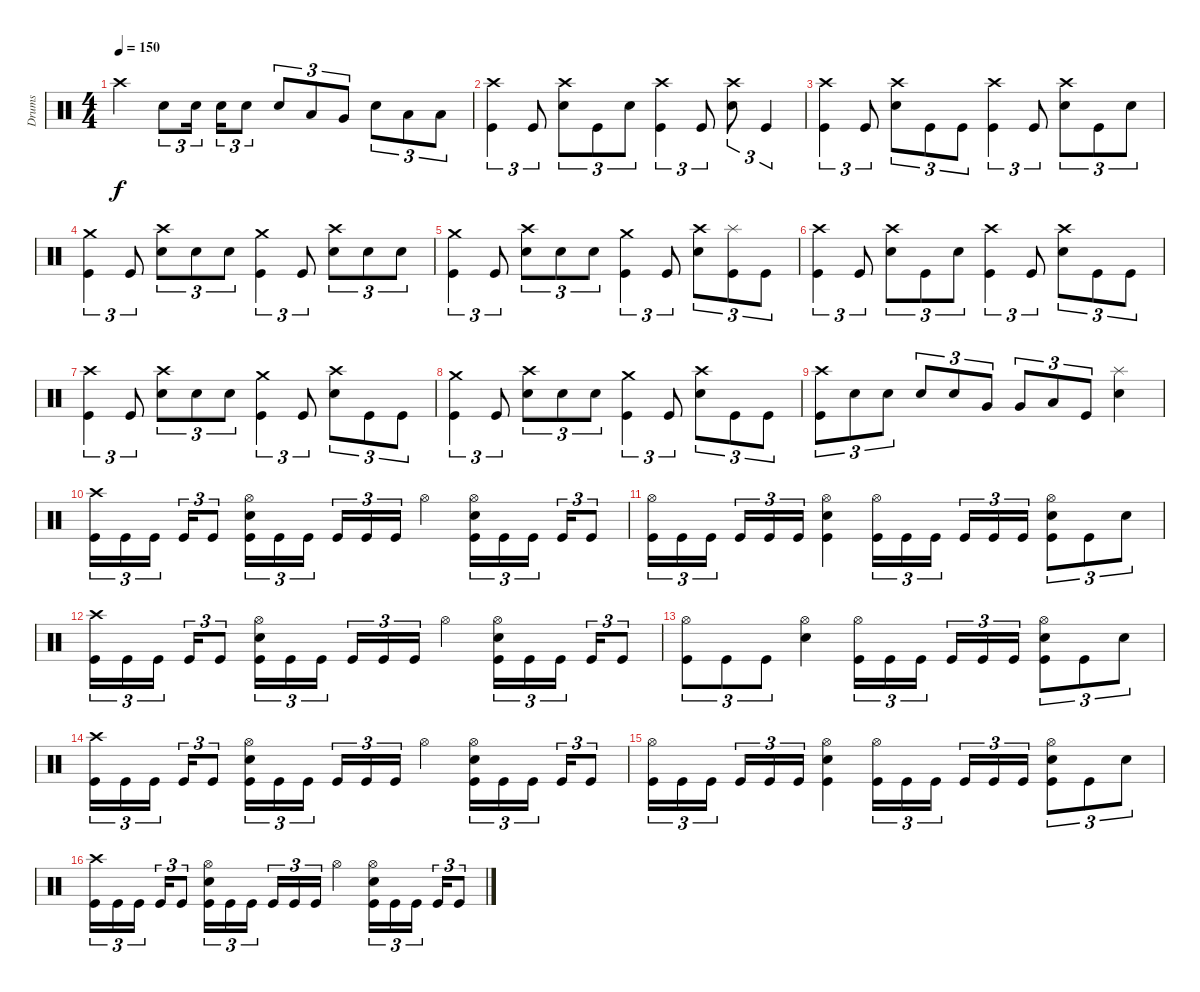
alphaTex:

\track ("Drums" "Drums") {instrument percussion}
\staff {score}
\articulation defaults
\ts (4 4)
\tempo 150
\clef neutral
\ks c "Crash high (hit)".4{dy f} "Electric Snare (hit)".8{tu (3 2)} "Electric Snare (hit)".16{tu (3 2) beam splitsecondary} "Electric Snare (hit)".16{tu (3 2)} "Electric Snare (hit)".8{tu (3 2)} "Electric Snare (hit)".8{tu (3 2)} "Low Tom (hit)".8{tu (3 2)} "Very Low Tom (hit)".8{tu (3 2)} "Electric Snare (hit)".8{tu (3 2)} "Low Floor Tom (hit)".8{tu (3 2)} "Low Floor Tom (hit)".8{tu (3 2)}
|
("Crash high (hit)" "Kick (hit)").4{tu (3 2)} "Kick (hit)".8{tu (3 2)} ("Crash high (hit)" "Electric Snare (hit)").8{tu (3 2)} "Kick (hit)".8{tu (3 2)} "Electric Snare (hit)".8{tu (3 2)} ("Crash high (hit)" "Kick (hit)").4{tu (3 2)} "Kick (hit)".8{tu (3 2)} ("Crash high (hit)" "Electric Snare (hit)").8{tu (3 2)} "Kick (hit)".4{tu (3 2)} |
("Crash high (hit)" "Kick (hit)").4{tu (3 2)} "Kick (hit)".8{tu (3 2)} ("Crash high (hit)" "Electric Snare (hit)").8{tu (3 2)} "Kick (hit)".8{tu (3 2)} "Kick (hit)".8{tu (3 2)} ("Crash high (hit)" "Kick (hit)").4{tu (3 2)} "Kick (hit)".8{tu (3 2)} ("Crash high (hit)" "Electric Snare (hit)").8{tu (3 2)} "Kick (hit)".8{tu (3 2)} "Electric Snare (hit)".8{tu (3 2)} |
("Crash medium (hit)" "Kick (hit)").4{tu (3 2)} "Kick (hit)".8{tu (3 2)} ("Crash high (hit)" "Electric Snare (hit)").8{tu (3 2)} "Electric Snare (hit)".8{tu (3 2)} "Electric Snare (hit)".8{tu (3 2)} ("Crash medium (hit)" "Kick (hit)").4{tu (3 2)} "Kick (hit)".8{tu (3 2)} ("Crash high (hit)" "Electric Snare (hit)").8{tu (3 2)} "Electric Snare (hit)".8{tu (3 2)} "Electric Snare (hit)".8{tu (3 2)} |
("Crash medium (hit)" "Kick (hit)").4{tu (3 2)} "Kick (hit)".8{tu (3 2)} ("Crash high (hit)" "Electric Snare (hit)").8{tu (3 2)} "Electric Snare (hit)".8{tu (3 2)} "Electric Snare (hit)".8{tu (3 2)} ("Crash medium (hit)" "Kick (hit)").4{tu (3 2)} "Kick (hit)".8{tu (3 2)} ("Crash high (hit)" "Electric Snare (hit)").8{tu (3 2)} ("Splash (hit)" "Kick (hit)").8{tu (3 2)} "Kick (hit)".8{tu (3 2)} |
("Crash high (hit)" "Kick (hit)").4{tu (3 2)} "Kick (hit)".8{tu (3 2)} ("Crash high (hit)" "Electric Snare (hit)").8{tu (3 2)} "Kick (hit)".8{tu (3 2)} "Electric Snare (hit)".8{tu (3 2)} ("Crash high (hit)" "Kick (hit)").4{tu (3 2)} "Kick (hit)".8{tu (3 2)} ("Crash high (hit)" "Electric Snare (hit)").8{tu (3 2)} "Kick (hit)".8{tu (3 2)} "Kick (hit)".8{tu (3 2)} |
("Crash high (hit)" "Kick (hit)").4{tu (3 2)} "Kick (hit)".8{tu (3 2)} ("Crash high (hit)" "Electric Snare (hit)").8{tu (3 2)} "Electric Snare (hit)".8{tu (3 2)} "Electric Snare (hit)".8{tu (3 2)} ("Crash medium (hit)" "Kick (hit)").4{tu (3 2)} "Kick (hit)".8{tu (3 2)} ("Crash high (hit)" "Electric Snare (hit)").8{tu (3 2)} "Kick (hit)".8{tu (3 2)} "Kick (hit)".8{tu (3 2)} |
("Crash medium (hit)" "Kick (hit)").4{tu (3 2)} "Kick (hit)".8{tu (3 2)} ("Crash high (hit)" "Electric Snare (hit)").8{tu (3 2)} "Electric Snare (hit)".8{tu (3 2)} "Electric Snare (hit)".8{tu (3 2)} ("Crash medium (hit)" "Kick (hit)").4{tu (3 2)} "Kick (hit)".8{tu (3 2)} ("Crash high (hit)" "Electric Snare (hit)").8{tu (3 2)} "Kick (hit)".8{tu (3 2)} "Kick (hit)".8{tu (3 2)} |
("Crash high (hit)" "Kick (hit)").8{tu (3 2)} "Electric Snare (hit)".8{tu (3 2)} "Electric Snare (hit)".8{tu (3 2)} "Electric Snare (hit)".8{tu (3 2)} "Electric Snare (hit)".8{tu (3 2)} "Very Low Tom (hit)".8{tu (3 2)} "Very Low Tom (hit)".8{tu (3 2)} "Low Floor Tom (hit)".8{tu (3 2)} "Kick (hit)".8{tu (3 2)} ("Splash (hit)" "Electric Snare (hit)").4 |
("Crash high (hit)" "Kick (hit)").16{tu (3 2)} "Kick (hit)".16{tu (3 2)} "Kick (hit)".16{tu (3 2) beam splitsecondary} "Kick (hit)".16{tu (3 2)} "Kick (hit)".8{tu (3 2)} ("Hi-Hat (open)" "Electric Snare (hit)" "Kick (hit)").16{tu (3 2)} "Kick (hit)".16{tu (3 2)} "Kick (hit)".16{tu (3 2) beam splitsecondary} "Kick (hit)".16{tu (3 2)} "Kick (hit)".16{tu (3 2)} "Kick (hit)".16{tu (3 2)} "Hi-Hat (open)".4 ("Hi-Hat (open)" "Electric Snare (hit)" "Kick (hit)").16{tu (3 2)} "Kick (hit)".16{tu (3 2)} "Kick (hit)".16{tu (3 2) beam splitsecondary} "Kick (hit)".16{tu (3 2)} "Kick (hit)".8{tu (3 2)} |
("Hi-Hat (open)" "Kick (hit)").16{tu (3 2)} "Kick (hit)".16{tu (3 2)} "Kick (hit)".16{tu (3 2) beam splitsecondary} "Kick (hit)".16{tu (3 2)} "Kick (hit)".16{tu (3 2)} "Kick (hit)".16{tu (3 2)} ("Hi-Hat (open)" "Electric Snare (hit)" "Kick (hit)").4 ("Hi-Hat (open)" "Kick (hit)").16{tu (3 2)} "Kick (hit)".16{tu (3 2)} "Kick (hit)".16{tu (3 2) beam splitsecondary} "Kick (hit)".16{tu (3 2)} "Kick (hit)".16{tu (3 2)} "Kick (hit)".16{tu (3 2)} ("Hi-Hat (open)" "Electric Snare (hit)" "Kick (hit)").8{tu (3 2)} "Kick (hit)".8{tu (3 2)} "Electric Snare (hit)".8{tu (3 2)} |
("Crash high (hit)" "Kick (hit)").16{tu (3 2)} "Kick (hit)".16{tu (3 2)} "Kick (hit)".16{tu (3 2) beam splitsecondary} "Kick (hit)".16{tu (3 2)} "Kick (hit)".8{tu (3 2)} ("Hi-Hat (open)" "Electric Snare (hit)" "Kick (hit)").16{tu (3 2)} "Kick (hit)".16{tu (3 2)} "Kick (hit)".16{tu (3 2) beam splitsecondary} "Kick (hit)".16{tu (3 2)} "Kick (hit)".16{tu (3 2)} "Kick (hit)".16{tu (3 2)} "Hi-Hat (open)".4 ("Hi-Hat (open)" "Electric Snare (hit)" "Kick (hit)").16{tu (3 2)} "Kick (hit)".16{tu (3 2)} "Kick (hit)".16{tu (3 2) beam splitsecondary} "Kick (hit)".16{tu (3 2)} "Kick (hit)".8{tu (3 2)} |
("Hi-Hat (open)" "Kick (hit)").8{tu (3 2)} "Kick (hit)".8{tu (3 2)} "Kick (hit)".8{tu (3 2)} ("Hi-Hat (open)" "Electric Snare (hit)").4 ("Hi-Hat (open)" "Kick (hit)").16{tu (3 2)} "Kick (hit)".16{tu (3 2)} "Kick (hit)".16{tu (3 2) beam splitsecondary} "Kick (hit)".16{tu (3 2)} "Kick (hit)".16{tu (3 2)} "Kick (hit)".16{tu (3 2)} ("Hi-Hat (open)" "Electric Snare (hit)" "Kick (hit)").8{tu (3 2)} "Kick (hit)".8{tu (3 2)} "Electric Snare (hit)".8{tu (3 2)} |
("Crash high (hit)" "Kick (hit)").16{tu (3 2)} "Kick (hit)".16{tu (3 2)} "Kick (hit)".16{tu (3 2) beam splitsecondary} "Kick (hit)".16{tu (3 2)} "Kick (hit)".8{tu (3 2)} ("Hi-Hat (open)" "Electric Snare (hit)" "Kick (hit)").16{tu (3 2)} "Kick (hit)".16{tu (3 2)} "Kick (hit)".16{tu (3 2) beam splitsecondary} "Kick (hit)".16{tu (3 2)} "Kick (hit)".16{tu (3 2)} "Kick (hit)".16{tu (3 2)} "Hi-Hat (open)".4 ("Hi-Hat (open)" "Electric Snare (hit)" "Kick (hit)").16{tu (3 2)} "Kick (hit)".16{tu (3 2)} "Kick (hit)".16{tu (3 2) beam splitsecondary} "Kick (hit)".16{tu (3 2)} "Kick (hit)".8{tu (3 2)} |
("Hi-Hat (open)" "Kick (hit)").16{tu (3 2)} "Kick (hit)".16{tu (3 2)} "Kick (hit)".16{tu (3 2) beam splitsecondary} "Kick (hit)".16{tu (3 2)} "Kick (hit)".16{tu (3 2)} "Kick (hit)".16{tu (3 2)} ("Hi-Hat (open)" "Electric Snare (hit)" "Kick (hit)").4 ("Hi-Hat (open)" "Kick (hit)").16{tu (3 2)} "Kick (hit)".16{tu (3 2)} "Kick (hit)".16{tu (3 2) beam splitsecondary} "Kick (hit)".16{tu (3 2)} "Kick (hit)".16{tu (3 2)} "Kick (hit)".16{tu (3 2)} ("Hi-Hat (open)" "Electric Snare (hit)" "Kick (hit)").8{tu (3 2)} "Kick (hit)".8{tu (3 2)} "Electric Snare (hit)".8{tu (3 2)} |
("Crash high (hit)" "Kick (hit)").16{tu (3 2)} "Kick (hit)".16{tu (3 2)} "Kick (hit)".16{tu (3 2) beam splitsecondary} "Kick (hit)".16{tu (3 2)} "Kick (hit)".8{tu (3 2)} ("Hi-Hat (open)" "Electric Snare (hit)" "Kick (hit)").16{tu (3 2)} "Kick (hit)".16{tu (3 2)} "Kick (hit)".16{tu (3 2) beam splitsecondary} "Kick (hit)".16{tu (3 2)} "Kick (hit)".16{tu (3 2)} "Kick (hit)".16{tu (3 2)} "Hi-Hat (open)".4 ("Hi-Hat (open)" "Electric Snare (hit)" "Kick (hit)").16{tu (3 2)} "Kick (hit)".16{tu (3 2)} "Kick (hit)".16{tu (3 2) beam splitsecondary} "Kick (hit)".16{tu (3 2)} "Kick (hit)".8{tu (3 2)}
